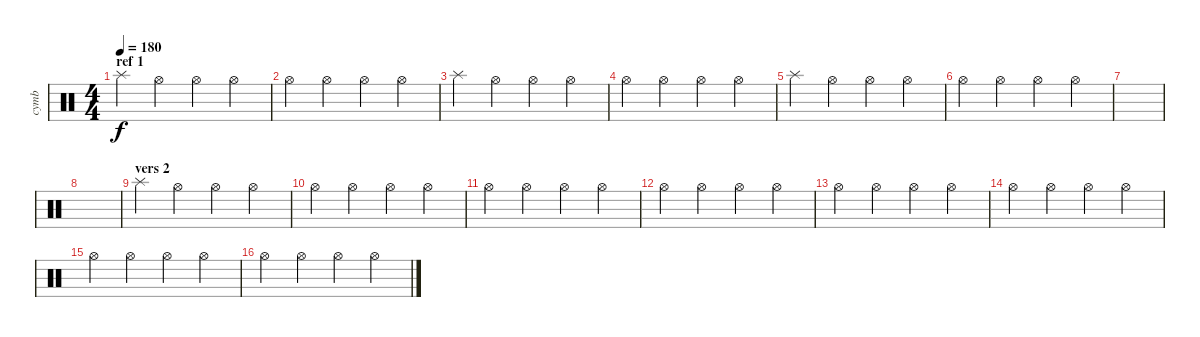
\track ("cymb" "cymb") {instrument percussion}
\staff {score}
\articulation defaults
\ts (4 4)
\section ("" "ref 1")
\tempo 180
\clef neutral
\ks c "Splash (hit)".4{dy f} "Hi-Hat (open)".4 "Hi-Hat (open)".4 "Hi-Hat (open)".4
|
"Hi-Hat (open)".4 "Hi-Hat (open)".4 "Hi-Hat (open)".4 "Hi-Hat (open)".4 |
"Splash (hit)".4 "Hi-Hat (open)".4 "Hi-Hat (open)".4 "Hi-Hat (open)".4 |
"Hi-Hat (open)".4 "Hi-Hat (open)".4 "Hi-Hat (open)".4 "Hi-Hat (open)".4 |
"Splash (hit)".4 "Hi-Hat (open)".4 "Hi-Hat (open)".4 "Hi-Hat (open)".4 |
"Hi-Hat (open)".4 "Hi-Hat (open)".4 "Hi-Hat (open)".4 "Hi-Hat (open)".4 |
|
|
\section ("" "vers 2")
"Splash (hit)".4 "Hi-Hat (open)".4 "Hi-Hat (open)".4 "Hi-Hat (open)".4 |
"Hi-Hat (open)".4 "Hi-Hat (open)".4 "Hi-Hat (open)".4 "Hi-Hat (open)".4 |
"Hi-Hat (open)".4 "Hi-Hat (open)".4 "Hi-Hat (open)".4 "Hi-Hat (open)".4 |
"Hi-Hat (open)".4 "Hi-Hat (open)".4 "Hi-Hat (open)".4 "Hi-Hat (open)".4 |
"Hi-Hat (open)".4 "Hi-Hat (open)".4 "Hi-Hat (open)".4 "Hi-Hat (open)".4 |
"Hi-Hat (open)".4 "Hi-Hat (open)".4 "Hi-Hat (open)".4 "Hi-Hat (open)".4 |
"Hi-Hat (open)".4 "Hi-Hat (open)".4 "Hi-Hat (open)".4 "Hi-Hat (open)".4 |
"Hi-Hat (open)".4 "Hi-Hat (open)".4 "Hi-Hat (open)".4 "Hi-Hat (open)".4
